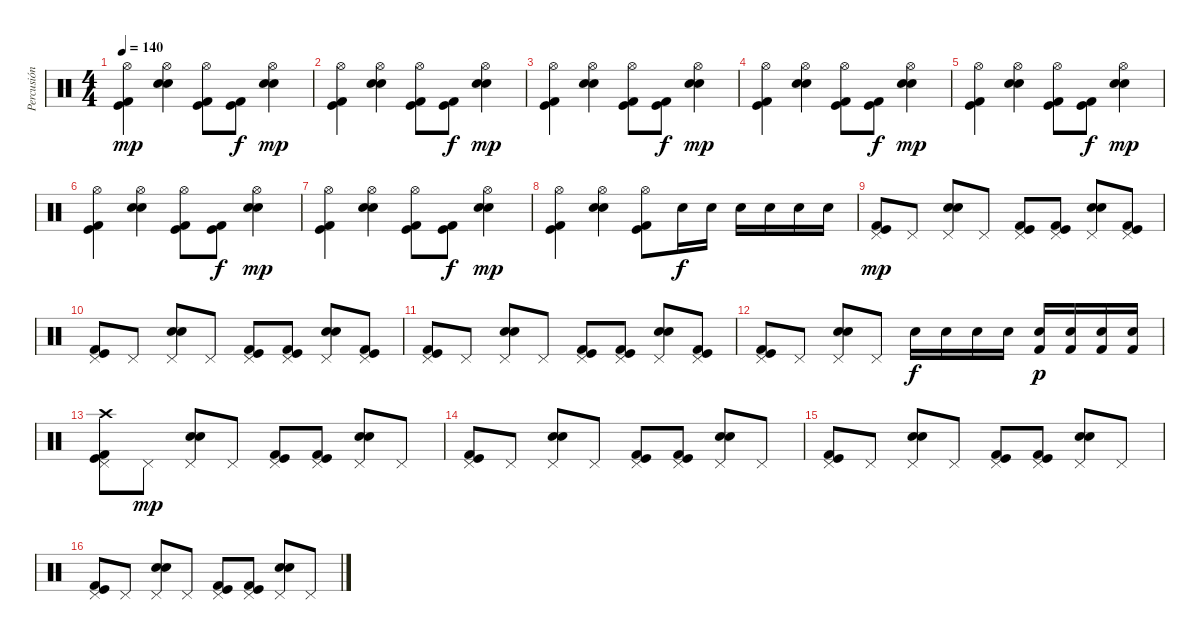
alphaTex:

\track ("Percusión" "Percusión") {instrument percussion}
\staff {score}
\articulation defaults
\ts (4 4)
\tempo 140
\clef neutral
\ks c
("Kick (hit)" "Kick (hit) 2" "Hi-Hat (open)").4{dy mp} ("Electric Snare (hit)" "Snare (hit) 2" "Hi-Hat (open)").4 ("Kick (hit)" "Kick (hit) 2" "Hi-Hat (open)").8 ("Kick (hit)" "Kick (hit) 2").8{dy f} ("Snare (hit) 2" "Electric Snare (hit)" "Hi-Hat (open)").4{dy mp} |
("Kick (hit)" "Kick (hit) 2" "Hi-Hat (open)").4 ("Electric Snare (hit)" "Snare (hit) 2" "Hi-Hat (open)").4 ("Kick (hit)" "Kick (hit) 2" "Hi-Hat (open)").8 ("Kick (hit)" "Kick (hit) 2").8{dy f} ("Snare (hit) 2" "Electric Snare (hit)" "Hi-Hat (open)").4{dy mp} |
("Kick (hit)" "Kick (hit) 2" "Hi-Hat (open)").4 ("Electric Snare (hit)" "Snare (hit) 2" "Hi-Hat (open)").4 ("Kick (hit)" "Kick (hit) 2" "Hi-Hat (open)").8 ("Kick (hit)" "Kick (hit) 2").8{dy f} ("Snare (hit) 2" "Electric Snare (hit)" "Hi-Hat (open)").4{dy mp} |
("Kick (hit)" "Kick (hit) 2" "Hi-Hat (open)").4 ("Electric Snare (hit)" "Snare (hit) 2" "Hi-Hat (open)").4 ("Kick (hit)" "Kick (hit) 2" "Hi-Hat (open)").8 ("Kick (hit)" "Kick (hit) 2").8{dy f} ("Snare (hit) 2" "Electric Snare (hit)" "Hi-Hat (open)").4{dy mp} |
("Kick (hit)" "Kick (hit) 2" "Hi-Hat (open)").4 ("Electric Snare (hit)" "Snare (hit) 2" "Hi-Hat (open)").4 ("Kick (hit)" "Kick (hit) 2" "Hi-Hat (open)").8 ("Kick (hit)" "Kick (hit) 2").8{dy f} ("Snare (hit) 2" "Electric Snare (hit)" "Hi-Hat (open)").4{dy mp} |
("Kick (hit)" "Kick (hit) 2" "Hi-Hat (open)").4 ("Electric Snare (hit)" "Snare (hit) 2" "Hi-Hat (open)").4 ("Kick (hit)" "Kick (hit) 2" "Hi-Hat (open)").8 ("Kick (hit)" "Kick (hit) 2").8{dy f} ("Snare (hit) 2" "Electric Snare (hit)" "Hi-Hat (open)").4{dy mp} |
("Kick (hit)" "Kick (hit) 2" "Hi-Hat (open)").4 ("Electric Snare (hit)" "Snare (hit) 2" "Hi-Hat (open)").4 ("Kick (hit)" "Kick (hit) 2" "Hi-Hat (open)").8 ("Kick (hit)" "Kick (hit) 2").8{dy f} ("Snare (hit) 2" "Electric Snare (hit)" "Hi-Hat (open)").4{dy mp} |
("Kick (hit)" "Kick (hit) 2" "Hi-Hat (open)").4 ("Electric Snare (hit)" "Snare (hit) 2" "Hi-Hat (open)").4 ("Kick (hit)" "Kick (hit) 2" "Hi-Hat (open)").8 "Electric Snare (hit)".16{dy f} "Electric Snare (hit)".16 "Electric Snare (hit)".16 "Electric Snare (hit)".16 "Electric Snare (hit)".16 "Electric Snare (hit)".16 |
("Kick (hit)" "Kick (hit) 2" "Pedal Hi-Hat (hit)").8{dy mp} "Pedal Hi-Hat (hit)".8 ("Electric Snare (hit)" "Snare (hit) 2" "Pedal Hi-Hat (hit)").8 "Pedal Hi-Hat (hit)".8 ("Kick (hit)" "Kick (hit) 2" "Pedal Hi-Hat (hit)").8 ("Kick (hit)" "Kick (hit) 2" "Pedal Hi-Hat (hit)").8 ("Snare (hit) 2" "Electric Snare (hit)" "Pedal Hi-Hat (hit)").8 ("Kick (hit)" "Kick (hit) 2" "Pedal Hi-Hat (hit)").8 |
("Kick (hit)" "Kick (hit) 2" "Pedal Hi-Hat (hit)").8 "Pedal Hi-Hat (hit)".8 ("Electric Snare (hit)" "Snare (hit) 2" "Pedal Hi-Hat (hit)").8 "Pedal Hi-Hat (hit)".8 ("Kick (hit)" "Kick (hit) 2" "Pedal Hi-Hat (hit)").8 ("Kick (hit)" "Kick (hit) 2" "Pedal Hi-Hat (hit)").8 ("Snare (hit) 2" "Electric Snare (hit)" "Pedal Hi-Hat (hit)").8 ("Kick (hit)" "Kick (hit) 2" "Pedal Hi-Hat (hit)").8 |
("Kick (hit)" "Kick (hit) 2" "Pedal Hi-Hat (hit)").8 "Pedal Hi-Hat (hit)".8 ("Electric Snare (hit)" "Snare (hit) 2" "Pedal Hi-Hat (hit)").8 "Pedal Hi-Hat (hit)".8 ("Kick (hit)" "Kick (hit) 2" "Pedal Hi-Hat (hit)").8 ("Kick (hit)" "Kick (hit) 2" "Pedal Hi-Hat (hit)").8 ("Snare (hit) 2" "Electric Snare (hit)" "Pedal Hi-Hat (hit)").8 ("Kick (hit)" "Kick (hit) 2" "Pedal Hi-Hat (hit)").8 |
("Kick (hit)" "Kick (hit) 2" "Pedal Hi-Hat (hit)").8 "Pedal Hi-Hat (hit)".8 ("Electric Snare (hit)" "Snare (hit) 2" "Pedal Hi-Hat (hit)").8 "Pedal Hi-Hat (hit)".8 "Electric Snare (hit)".16{dy f} "Electric Snare (hit)".16 "Electric Snare (hit)".16 "Electric Snare (hit)".16 ("Electric Snare (hit)" "Kick (hit) 2").16{dy p} ("Electric Snare (hit)" "Kick (hit) 2").16 ("Electric Snare (hit)" "Kick (hit) 2").16 ("Electric Snare (hit)" "Kick (hit) 2").16 |
("Kick (hit)" "Kick (hit) 2" "Pedal Hi-Hat (hit)" "Crash high (hit)").8 "Pedal Hi-Hat (hit)".8{dy mp} ("Electric Snare (hit)" "Snare (hit) 2" "Pedal Hi-Hat (hit)").8 "Pedal Hi-Hat (hit)".8 ("Kick (hit)" "Kick (hit) 2" "Pedal Hi-Hat (hit)").8 ("Kick (hit)" "Kick (hit) 2" "Pedal Hi-Hat (hit)").8 ("Snare (hit) 2" "Electric Snare (hit)" "Pedal Hi-Hat (hit)").8 "Pedal Hi-Hat (hit)".8 |
("Kick (hit)" "Kick (hit) 2" "Pedal Hi-Hat (hit)").8 "Pedal Hi-Hat (hit)".8 ("Electric Snare (hit)" "Snare (hit) 2" "Pedal Hi-Hat (hit)").8 "Pedal Hi-Hat (hit)".8 ("Kick (hit)" "Kick (hit) 2" "Pedal Hi-Hat (hit)").8 ("Kick (hit)" "Kick (hit) 2" "Pedal Hi-Hat (hit)").8 ("Snare (hit) 2" "Electric Snare (hit)" "Pedal Hi-Hat (hit)").8 "Pedal Hi-Hat (hit)".8 |
("Kick (hit)" "Kick (hit) 2" "Pedal Hi-Hat (hit)").8 "Pedal Hi-Hat (hit)".8 ("Electric Snare (hit)" "Snare (hit) 2" "Pedal Hi-Hat (hit)").8 "Pedal Hi-Hat (hit)".8 ("Kick (hit)" "Kick (hit) 2" "Pedal Hi-Hat (hit)").8 ("Kick (hit)" "Kick (hit) 2" "Pedal Hi-Hat (hit)").8 ("Snare (hit) 2" "Electric Snare (hit)" "Pedal Hi-Hat (hit)").8 "Pedal Hi-Hat (hit)".8 |
("Kick (hit)" "Kick (hit) 2" "Pedal Hi-Hat (hit)").8 "Pedal Hi-Hat (hit)".8 ("Electric Snare (hit)" "Snare (hit) 2" "Pedal Hi-Hat (hit)").8 "Pedal Hi-Hat (hit)".8 ("Kick (hit)" "Kick (hit) 2" "Pedal Hi-Hat (hit)").8 ("Kick (hit)" "Kick (hit) 2" "Pedal Hi-Hat (hit)").8 ("Snare (hit) 2" "Electric Snare (hit)" "Pedal Hi-Hat (hit)").8 "Pedal Hi-Hat (hit)".8
